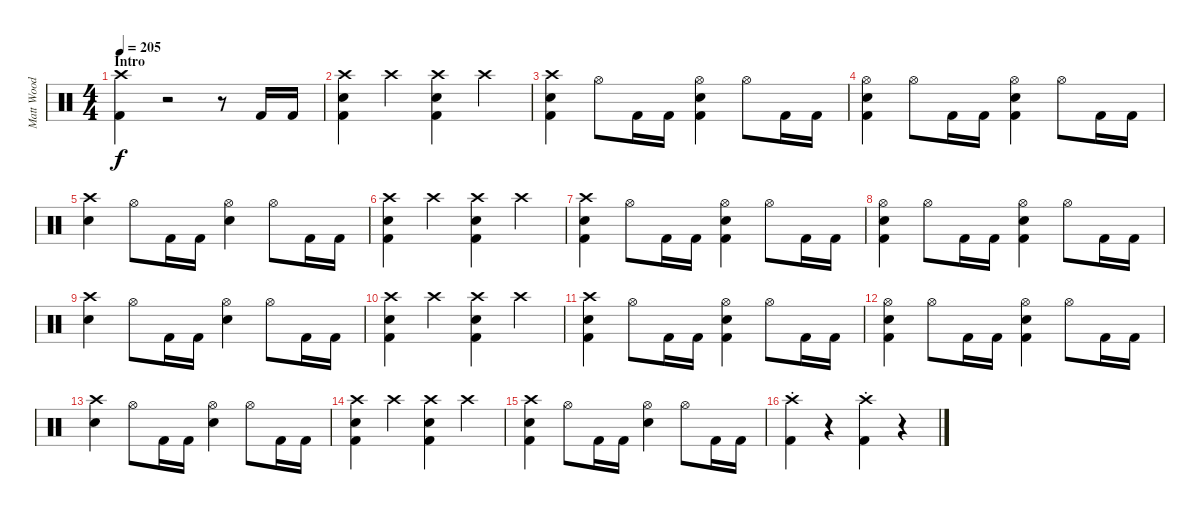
\track ("Matt Wood" "Matt Wood") {instrument percussion}
\staff {score}
\articulation defaults
\ts (4 4)
\section ("" "Intro")
\tempo 205
\clef neutral
\ks c
("Crash high (hit)" "Kick (hit) 2").4{dy f} r.2 r.8 "Kick (hit) 2".16 "Kick (hit) 2".16 |
("Crash high (hit)" "Snare (hit) 2" "Kick (hit) 2").4 "Crash high (hit)".4 ("Crash high (hit)" "Snare (hit) 2" "Kick (hit) 2").4 "Crash high (hit)".4 |
("Crash high (hit)" "Snare (hit) 2" "Kick (hit) 2").4 "Hi-Hat (open)".8 "Kick (hit) 2".16 "Kick (hit) 2".16 ("Hi-Hat (open)" "Snare (hit) 2" "Kick (hit) 2").4 "Hi-Hat (open)".8 "Kick (hit) 2".16 "Kick (hit) 2".16 |
("Hi-Hat (open)" "Snare (hit) 2" "Kick (hit) 2").4 "Hi-Hat (open)".8 "Kick (hit) 2".16 "Kick (hit) 2".16 ("Hi-Hat (open)" "Snare (hit) 2" "Kick (hit) 2").4 "Hi-Hat (open)".8 "Kick (hit) 2".16 "Kick (hit) 2".16 |
("Crash high (hit)" "Snare (hit) 2").4 "Hi-Hat (open)".8 "Kick (hit) 2".16 "Kick (hit) 2".16 ("Hi-Hat (open)" "Snare (hit) 2").4 "Hi-Hat (open)".8 "Kick (hit) 2".16 "Kick (hit) 2".16 |
("Crash high (hit)" "Snare (hit) 2" "Kick (hit) 2").4 "Crash high (hit)".4 ("Crash high (hit)" "Snare (hit) 2" "Kick (hit) 2").4 "Crash high (hit)".4 |
("Crash high (hit)" "Snare (hit) 2" "Kick (hit) 2").4 "Hi-Hat (open)".8 "Kick (hit) 2".16 "Kick (hit) 2".16 ("Hi-Hat (open)" "Snare (hit) 2" "Kick (hit) 2").4 "Hi-Hat (open)".8 "Kick (hit) 2".16 "Kick (hit) 2".16 |
("Hi-Hat (open)" "Snare (hit) 2" "Kick (hit) 2").4 "Hi-Hat (open)".8 "Kick (hit) 2".16 "Kick (hit) 2".16 ("Hi-Hat (open)" "Snare (hit) 2" "Kick (hit) 2").4 "Hi-Hat (open)".8 "Kick (hit) 2".16 "Kick (hit) 2".16 |
("Crash high (hit)" "Snare (hit) 2").4 "Hi-Hat (open)".8 "Kick (hit) 2".16 "Kick (hit) 2".16 ("Hi-Hat (open)" "Snare (hit) 2").4 "Hi-Hat (open)".8 "Kick (hit) 2".16 "Kick (hit) 2".16 |
("Crash high (hit)" "Snare (hit) 2" "Kick (hit) 2").4 "Crash high (hit)".4 ("Crash high (hit)" "Snare (hit) 2" "Kick (hit) 2").4 "Crash high (hit)".4 |
("Crash high (hit)" "Snare (hit) 2" "Kick (hit) 2").4 "Hi-Hat (open)".8 "Kick (hit) 2".16 "Kick (hit) 2".16 ("Hi-Hat (open)" "Snare (hit) 2" "Kick (hit) 2").4 "Hi-Hat (open)".8 "Kick (hit) 2".16 "Kick (hit) 2".16 |
("Hi-Hat (open)" "Snare (hit) 2" "Kick (hit) 2").4 "Hi-Hat (open)".8 "Kick (hit) 2".16 "Kick (hit) 2".16 ("Hi-Hat (open)" "Snare (hit) 2" "Kick (hit) 2").4 "Hi-Hat (open)".8 "Kick (hit) 2".16 "Kick (hit) 2".16 |
("Crash high (hit)" "Snare (hit) 2").4 "Hi-Hat (open)".8 "Kick (hit) 2".16 "Kick (hit) 2".16 ("Hi-Hat (open)" "Snare (hit) 2").4 "Hi-Hat (open)".8 "Kick (hit) 2".16 "Kick (hit) 2".16 |
("Crash high (hit)" "Snare (hit) 2" "Kick (hit) 2").4 "Crash high (hit)".4 ("Crash high (hit)" "Snare (hit) 2" "Kick (hit) 2").4 "Crash high (hit)".4 |
("Crash high (hit)" "Snare (hit) 2" "Kick (hit) 2").4 "Hi-Hat (open)".8 "Kick (hit) 2".16 "Kick (hit) 2".16 ("Hi-Hat (open)" "Snare (hit) 2").4 "Hi-Hat (open)".8 "Kick (hit) 2".16 "Kick (hit) 2".16 |
("Crash high (hit)"{st} "Kick (hit) 2"{st}).4 r.4 ("Crash high (hit)"{st} "Kick (hit) 2"{st}).4 r.4
